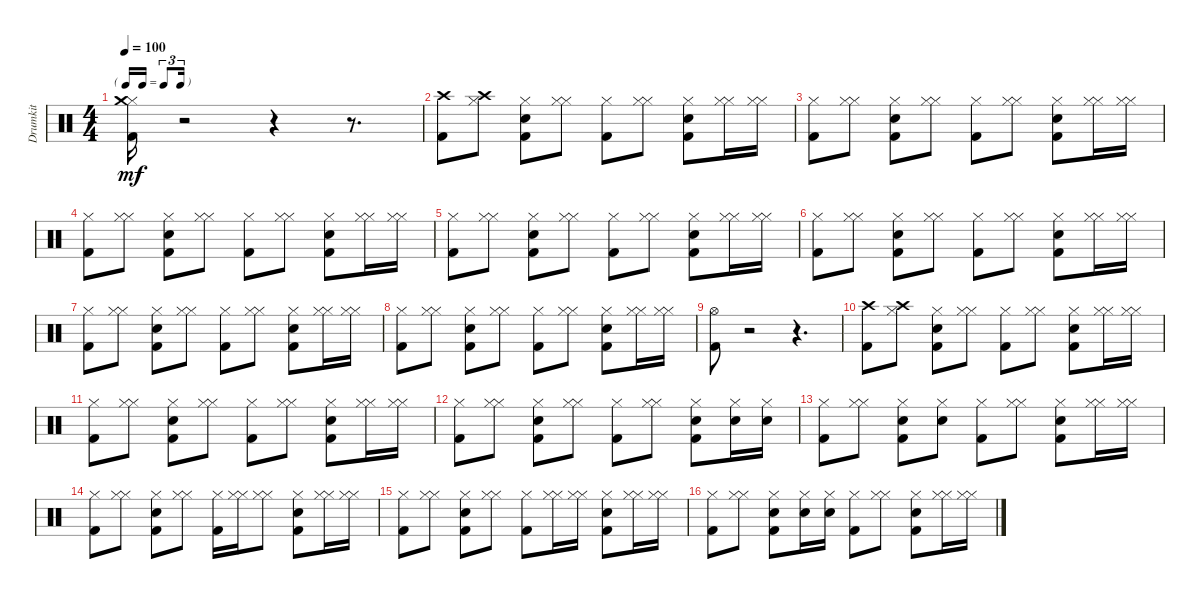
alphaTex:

\track ("Drumkit" "Drumkit") {instrument percussion}
\staff {score}
\articulation defaults
\ts (4 4)
\tf triplet16th
\tempo 100
\clef neutral
\ks c
("Kick (hit) 2" "Hi-Hat (closed)" "Crash medium (hit)").16{dy mf} r.2 r.4 r.8{d} |
("Crash high (hit)" "Kick (hit) 2").8 ("Crash high (hit)" "Hi-Hat (closed)").8 ("Snare (hit) 2" "Hi-Hat (closed)" "Kick (hit) 2").8 ("Hi-Hat (closed)" "Hi-Hat (closed)").8 ("Hi-Hat (closed)" "Kick (hit) 2").8 ("Hi-Hat (closed)" "Hi-Hat (closed)").8 ("Snare (hit) 2" "Hi-Hat (closed)" "Kick (hit) 2").8 ("Hi-Hat (closed)" "Hi-Hat (closed)").16 ("Hi-Hat (closed)" "Hi-Hat (closed)").16 |
("Hi-Hat (closed)" "Kick (hit) 2").8 ("Hi-Hat (closed)" "Hi-Hat (closed)").8 ("Snare (hit) 2" "Hi-Hat (closed)" "Kick (hit) 2").8 ("Hi-Hat (closed)" "Hi-Hat (closed)").8 ("Hi-Hat (closed)" "Kick (hit) 2").8 ("Hi-Hat (closed)" "Hi-Hat (closed)").8 ("Snare (hit) 2" "Hi-Hat (closed)" "Kick (hit) 2").8 ("Hi-Hat (closed)" "Hi-Hat (closed)").16 ("Hi-Hat (closed)" "Hi-Hat (closed)").16 |
("Hi-Hat (closed)" "Kick (hit) 2").8 ("Hi-Hat (closed)" "Hi-Hat (closed)").8 ("Snare (hit) 2" "Hi-Hat (closed)" "Kick (hit) 2").8 ("Hi-Hat (closed)" "Hi-Hat (closed)").8 ("Hi-Hat (closed)" "Kick (hit) 2").8 ("Hi-Hat (closed)" "Hi-Hat (closed)").8 ("Snare (hit) 2" "Hi-Hat (closed)" "Kick (hit) 2").8 ("Hi-Hat (closed)" "Hi-Hat (closed)").16 ("Hi-Hat (closed)" "Hi-Hat (closed)").16 |
("Hi-Hat (closed)" "Kick (hit) 2").8 ("Hi-Hat (closed)" "Hi-Hat (closed)").8 ("Snare (hit) 2" "Hi-Hat (closed)" "Kick (hit) 2").8 ("Hi-Hat (closed)" "Hi-Hat (closed)").8 ("Hi-Hat (closed)" "Kick (hit) 2").8 ("Hi-Hat (closed)" "Hi-Hat (closed)").8 ("Snare (hit) 2" "Hi-Hat (closed)" "Kick (hit) 2").8 ("Hi-Hat (closed)" "Hi-Hat (closed)").16 ("Hi-Hat (closed)" "Hi-Hat (closed)").16 |
("Hi-Hat (closed)" "Kick (hit) 2").8 ("Hi-Hat (closed)" "Hi-Hat (closed)").8 ("Snare (hit) 2" "Hi-Hat (closed)" "Kick (hit) 2").8 ("Hi-Hat (closed)" "Hi-Hat (closed)").8 ("Hi-Hat (closed)" "Kick (hit) 2").8 ("Hi-Hat (closed)" "Hi-Hat (closed)").8 ("Snare (hit) 2" "Hi-Hat (closed)" "Kick (hit) 2").8 ("Hi-Hat (closed)" "Hi-Hat (closed)").16 ("Hi-Hat (closed)" "Hi-Hat (closed)").16 |
("Hi-Hat (closed)" "Kick (hit) 2").8 ("Hi-Hat (closed)" "Hi-Hat (closed)").8 ("Snare (hit) 2" "Hi-Hat (closed)" "Kick (hit) 2").8 ("Hi-Hat (closed)" "Hi-Hat (closed)").8 ("Hi-Hat (closed)" "Kick (hit) 2").8 ("Hi-Hat (closed)" "Hi-Hat (closed)").8 ("Snare (hit) 2" "Hi-Hat (closed)" "Kick (hit) 2").8 ("Hi-Hat (closed)" "Hi-Hat (closed)").16 ("Hi-Hat (closed)" "Hi-Hat (closed)").16 |
("Hi-Hat (closed)" "Kick (hit) 2").8 ("Hi-Hat (closed)" "Hi-Hat (closed)").8 ("Snare (hit) 2" "Hi-Hat (closed)" "Kick (hit) 2").8 ("Hi-Hat (closed)" "Hi-Hat (closed)").8 ("Hi-Hat (closed)" "Kick (hit) 2").8 ("Hi-Hat (closed)" "Hi-Hat (closed)").8 ("Snare (hit) 2" "Hi-Hat (closed)" "Kick (hit) 2").8 ("Hi-Hat (closed)" "Hi-Hat (closed)").16 ("Hi-Hat (closed)" "Hi-Hat (closed)").16 |
("Kick (hit) 2" "Hi-Hat (open)").8 r.2 r.4{d} |
("Crash high (hit)" "Kick (hit) 2").8 ("Crash high (hit)" "Hi-Hat (closed)").8 ("Snare (hit) 2" "Hi-Hat (closed)" "Kick (hit) 2").8 ("Hi-Hat (closed)" "Hi-Hat (closed)").8 ("Hi-Hat (closed)" "Kick (hit) 2").8 ("Hi-Hat (closed)" "Hi-Hat (closed)").8 ("Snare (hit) 2" "Hi-Hat (closed)" "Kick (hit) 2").8 ("Hi-Hat (closed)" "Hi-Hat (closed)").16 ("Hi-Hat (closed)" "Hi-Hat (closed)").16 |
("Hi-Hat (closed)" "Kick (hit) 2").8 ("Hi-Hat (closed)" "Hi-Hat (closed)").8 ("Snare (hit) 2" "Hi-Hat (closed)" "Kick (hit) 2").8 ("Hi-Hat (closed)" "Hi-Hat (closed)").8 ("Hi-Hat (closed)" "Kick (hit) 2").8 ("Hi-Hat (closed)" "Hi-Hat (closed)").8 ("Snare (hit) 2" "Hi-Hat (closed)" "Kick (hit) 2").8 ("Hi-Hat (closed)" "Hi-Hat (closed)").16 ("Hi-Hat (closed)" "Hi-Hat (closed)").16 |
("Hi-Hat (closed)" "Kick (hit) 2").8 ("Hi-Hat (closed)" "Hi-Hat (closed)").8 ("Snare (hit) 2" "Hi-Hat (closed)" "Kick (hit) 2").8 ("Hi-Hat (closed)" "Hi-Hat (closed)").8 ("Hi-Hat (closed)" "Kick (hit) 2").8 ("Hi-Hat (closed)" "Hi-Hat (closed)").8 ("Hi-Hat (closed)" "Snare (hit) 2" "Kick (hit) 2").8 ("Snare (hit) 2" "Hi-Hat (closed)").16 ("Snare (hit) 2" "Hi-Hat (closed)").16 |
("Hi-Hat (closed)" "Kick (hit) 2").8 ("Hi-Hat (closed)" "Hi-Hat (closed)").8 ("Hi-Hat (closed)" "Snare (hit) 2" "Kick (hit) 2").8 ("Snare (hit) 2" "Hi-Hat (closed)").8 ("Hi-Hat (closed)" "Kick (hit) 2").8 ("Hi-Hat (closed)" "Hi-Hat (closed)").8 ("Snare (hit) 2" "Hi-Hat (closed)" "Kick (hit) 2").8 ("Hi-Hat (closed)" "Hi-Hat (closed)").16 ("Hi-Hat (closed)" "Hi-Hat (closed)").16 |
("Hi-Hat (closed)" "Kick (hit) 2").8 ("Hi-Hat (closed)" "Hi-Hat (closed)").8 ("Snare (hit) 2" "Hi-Hat (closed)" "Kick (hit) 2").8 ("Hi-Hat (closed)" "Hi-Hat (closed)").8 ("Hi-Hat (closed)" "Kick (hit) 2").16 ("Hi-Hat (closed)" "Hi-Hat (closed)").16 ("Hi-Hat (closed)" "Hi-Hat (closed)").8 ("Snare (hit) 2" "Hi-Hat (closed)" "Kick (hit) 2").8 ("Hi-Hat (closed)" "Hi-Hat (closed)").16 ("Hi-Hat (closed)" "Hi-Hat (closed)").16 |
("Hi-Hat (closed)" "Kick (hit) 2").8 ("Hi-Hat (closed)" "Hi-Hat (closed)").8 ("Snare (hit) 2" "Hi-Hat (closed)" "Kick (hit) 2").8 ("Hi-Hat (closed)" "Hi-Hat (closed)").8 ("Hi-Hat (closed)" "Kick (hit) 2").8 ("Hi-Hat (closed)" "Hi-Hat (closed)").16 ("Hi-Hat (closed)" "Hi-Hat (closed)").16 ("Snare (hit) 2" "Hi-Hat (closed)" "Kick (hit) 2").8 ("Hi-Hat (closed)" "Hi-Hat (closed)").16 ("Hi-Hat (closed)" "Hi-Hat (closed)").16 |
("Hi-Hat (closed)" "Kick (hit) 2").8 ("Hi-Hat (closed)" "Hi-Hat (closed)").8 ("Hi-Hat (closed)" "Snare (hit) 2" "Kick (hit) 2").8 ("Snare (hit) 2" "Hi-Hat (closed)").16 ("Snare (hit) 2" "Hi-Hat (closed)").16 ("Hi-Hat (closed)" "Kick (hit) 2").8 ("Hi-Hat (closed)" "Hi-Hat (closed)").8 ("Snare (hit) 2" "Hi-Hat (closed)" "Kick (hit) 2").8 ("Hi-Hat (closed)" "Hi-Hat (closed)").16 ("Hi-Hat (closed)" "Hi-Hat (closed)").16
